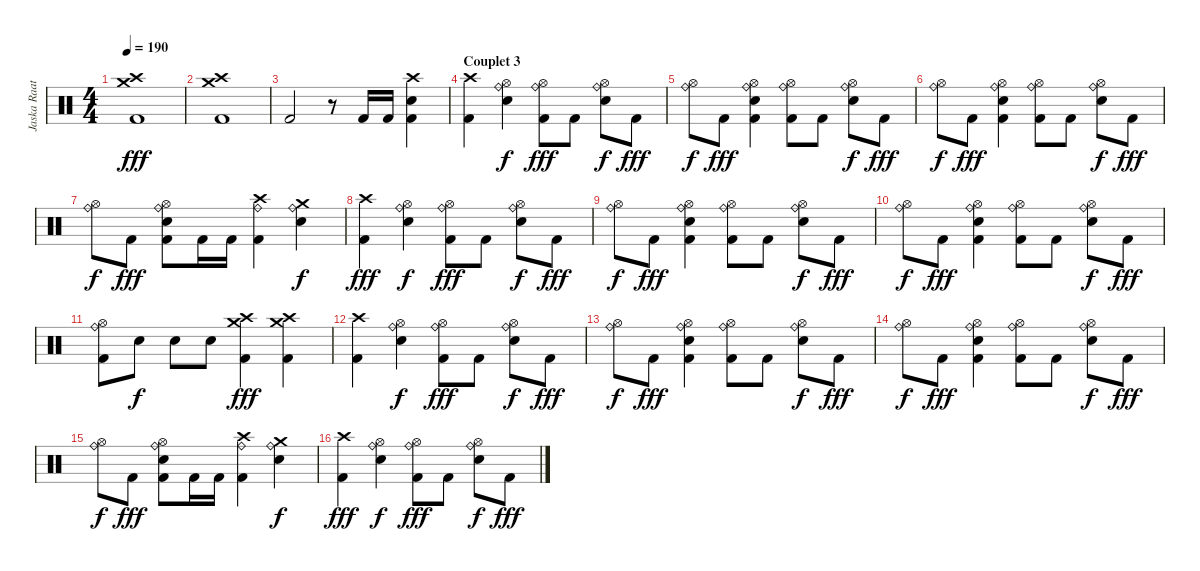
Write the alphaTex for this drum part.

\track ("Jaska Raatikainen (Drums)" "Jaska Raat") {instrument percussion}
\staff {score}
\articulation defaults
\ts (4 4)
\tempo 190
\clef neutral
\ks c
("Crash high (hit)" "Crash medium (hit)" "Kick (hit) 2").1{dy fff} |
("Crash high (hit)" "Crash medium (hit)" "Kick (hit) 2").1 |
"Kick (hit) 2".2 r.8 "Kick (hit) 2".16 "Kick (hit) 2".16 ("Crash high (hit)" "Electric Snare (hit)" "Kick (hit) 2").4 |
\section ("" "Couplet 3")
("Crash high (hit)" "Kick (hit) 2").4 ("Hi-Hat (open)" "Ride (bell)" "Electric Snare (hit)").4{dy f} ("Hi-Hat (open)" "Ride (bell)" "Kick (hit) 2").8{dy fff} "Kick (hit) 2".8 ("Hi-Hat (open)" "Ride (bell)" "Electric Snare (hit)").8{dy f} "Kick (hit) 2".8{dy fff} |
("Hi-Hat (open)" "Ride (bell)").8{dy f} "Kick (hit) 2".8{dy fff} ("Hi-Hat (open)" "Ride (bell)" "Electric Snare (hit)" "Kick (hit) 2").4 ("Hi-Hat (open)" "Ride (bell)" "Kick (hit) 2").8 "Kick (hit) 2".8 ("Hi-Hat (open)" "Ride (bell)" "Electric Snare (hit)").8{dy f} "Kick (hit) 2".8{dy fff} |
("Hi-Hat (open)" "Ride (bell)").8{dy f} "Kick (hit) 2".8{dy fff} ("Hi-Hat (open)" "Ride (bell)" "Electric Snare (hit)" "Kick (hit) 2").4 ("Hi-Hat (open)" "Ride (bell)" "Kick (hit) 2").8 "Kick (hit) 2".8 ("Hi-Hat (open)" "Ride (bell)" "Electric Snare (hit)").8{dy f} "Kick (hit) 2".8{dy fff} |
("Hi-Hat (open)" "Ride (bell)").8{dy f} "Kick (hit) 2".8{dy fff} ("Hi-Hat (open)" "Ride (bell)" "Electric Snare (hit)" "Kick (hit) 2").8 "Kick (hit) 2".16 "Kick (hit) 2".16 ("Crash high (hit)" "Ride (bell)" "Kick (hit) 2").4 ("Crash medium (hit)" "Ride (bell)" "Electric Snare (hit)").4{dy f} |
("Crash high (hit)" "Kick (hit) 2").4{dy fff} ("Hi-Hat (open)" "Ride (bell)" "Electric Snare (hit)").4{dy f} ("Hi-Hat (open)" "Ride (bell)" "Kick (hit) 2").8{dy fff} "Kick (hit) 2".8 ("Hi-Hat (open)" "Ride (bell)" "Electric Snare (hit)").8{dy f} "Kick (hit) 2".8{dy fff} |
("Hi-Hat (open)" "Ride (bell)").8{dy f} "Kick (hit) 2".8{dy fff} ("Hi-Hat (open)" "Ride (bell)" "Electric Snare (hit)" "Kick (hit) 2").4 ("Hi-Hat (open)" "Ride (bell)" "Kick (hit) 2").8 "Kick (hit) 2".8 ("Hi-Hat (open)" "Ride (bell)" "Electric Snare (hit)").8{dy f} "Kick (hit) 2".8{dy fff} |
("Hi-Hat (open)" "Ride (bell)").8{dy f} "Kick (hit) 2".8{dy fff} ("Hi-Hat (open)" "Ride (bell)" "Electric Snare (hit)" "Kick (hit) 2").4 ("Hi-Hat (open)" "Ride (bell)" "Kick (hit) 2").8 "Kick (hit) 2".8 ("Hi-Hat (open)" "Ride (bell)" "Electric Snare (hit)").8{dy f} "Kick (hit) 2".8{dy fff} |
("Hi-Hat (open)" "Ride (bell)" "Kick (hit) 2").8 "Electric Snare (hit)".8{dy f} "Electric Snare (hit)".8 "Electric Snare (hit)".8 ("Crash high (hit)" "Crash medium (hit)" "Kick (hit) 2").4{dy fff} ("Crash medium (hit)" "Crash high (hit)" "Kick (hit) 2").4 |
("Crash high (hit)" "Kick (hit) 2").4 ("Hi-Hat (open)" "Ride (bell)" "Electric Snare (hit)").4{dy f} ("Hi-Hat (open)" "Ride (bell)" "Kick (hit) 2").8{dy fff} "Kick (hit) 2".8 ("Hi-Hat (open)" "Ride (bell)" "Electric Snare (hit)").8{dy f} "Kick (hit) 2".8{dy fff} |
("Hi-Hat (open)" "Ride (bell)").8{dy f} "Kick (hit) 2".8{dy fff} ("Hi-Hat (open)" "Ride (bell)" "Electric Snare (hit)" "Kick (hit) 2").4 ("Hi-Hat (open)" "Ride (bell)" "Kick (hit) 2").8 "Kick (hit) 2".8 ("Hi-Hat (open)" "Ride (bell)" "Electric Snare (hit)").8{dy f} "Kick (hit) 2".8{dy fff} |
("Hi-Hat (open)" "Ride (bell)").8{dy f} "Kick (hit) 2".8{dy fff} ("Hi-Hat (open)" "Ride (bell)" "Electric Snare (hit)" "Kick (hit) 2").4 ("Hi-Hat (open)" "Ride (bell)" "Kick (hit) 2").8 "Kick (hit) 2".8 ("Hi-Hat (open)" "Ride (bell)" "Electric Snare (hit)").8{dy f} "Kick (hit) 2".8{dy fff} |
("Hi-Hat (open)" "Ride (bell)").8{dy f} "Kick (hit) 2".8{dy fff} ("Hi-Hat (open)" "Ride (bell)" "Electric Snare (hit)" "Kick (hit) 2").8 "Kick (hit) 2".16 "Kick (hit) 2".16 ("Crash high (hit)" "Ride (bell)" "Kick (hit) 2").4 ("Crash medium (hit)" "Ride (bell)" "Electric Snare (hit)").4{dy f} |
("Crash high (hit)" "Kick (hit) 2").4{dy fff} ("Hi-Hat (open)" "Ride (bell)" "Electric Snare (hit)").4{dy f} ("Hi-Hat (open)" "Ride (bell)" "Kick (hit) 2").8{dy fff} "Kick (hit) 2".8 ("Hi-Hat (open)" "Ride (bell)" "Electric Snare (hit)").8{dy f} "Kick (hit) 2".8{dy fff}
